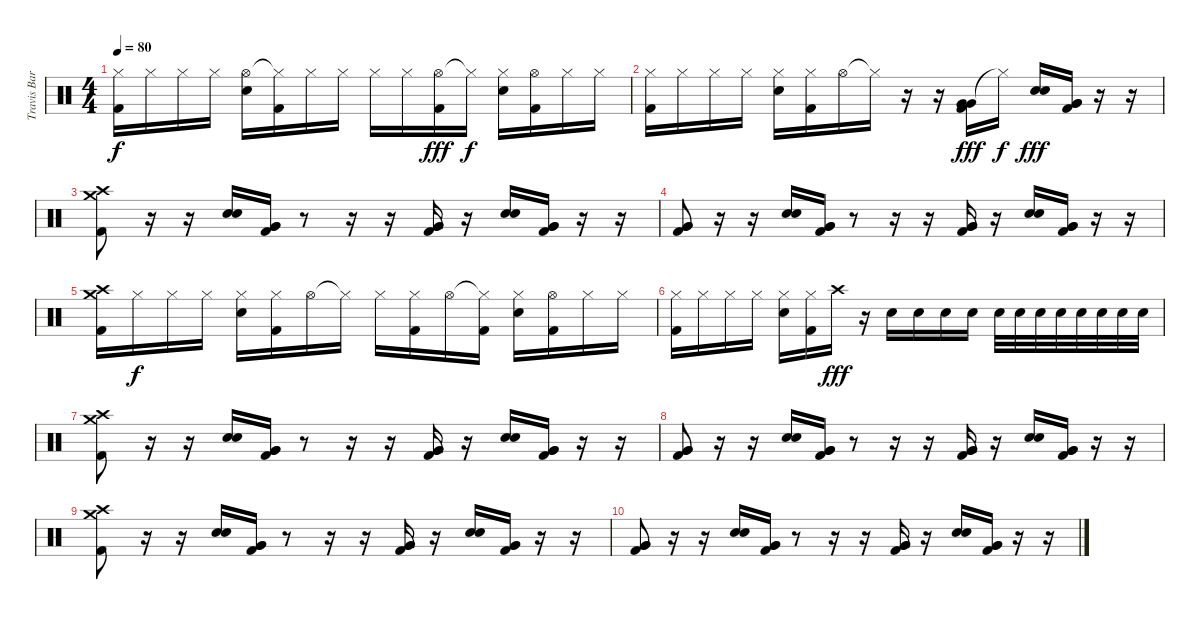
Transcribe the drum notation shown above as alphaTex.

\track ("Travis Barker" "Travis Bar") {instrument percussion}
\staff {score}
\articulation defaults
\ts (4 4)
\tempo 80
\clef neutral
\ks c
("Hi-Hat (closed)" "Kick (hit) 2").16{dy f} "Hi-Hat (closed)".16 "Hi-Hat (closed)".16 "Hi-Hat (closed)".16 ("Hi-Hat (open)" "Electric Snare (hit)").16 ("Hi-Hat (closed)"{t} "Kick (hit) 2").16 "Hi-Hat (closed)".16 "Hi-Hat (closed)".16 "Hi-Hat (closed)".16 "Hi-Hat (closed)".16 ("Hi-Hat (open)" "Kick (hit) 2").16{dy fff} "Hi-Hat (closed)"{t}.16{dy f} ("Hi-Hat (closed)" "Electric Snare (hit)").16 ("Hi-Hat (open)" "Kick (hit) 2").16 "Hi-Hat (closed)".16 "Hi-Hat (closed)".16 |
("Hi-Hat (closed)" "Kick (hit) 2").16 "Hi-Hat (closed)".16 "Hi-Hat (closed)".16 "Hi-Hat (closed)".16 ("Hi-Hat (closed)" "Electric Snare (hit)").16 ("Hi-Hat (closed)" "Kick (hit) 2").16 "Hi-Hat (open)".16 "Hi-Hat (closed)"{t}.16 r.16 r.16 ("Very Low Tom (hit)" "Very Low Tom (hit)" "Kick (hit) 2").16{dy fff} "Hi-Hat (closed)"{t}.16{dy f} ("Electric Snare (hit)" "Electric Snare (hit)").16{dy fff} ("Very Low Tom (hit)" "Very Low Tom (hit)" "Kick (hit) 2").16 r.16 r.16 |
("Crash high (hit)" "Crash medium (hit)" "Kick (hit) 2").8 r.16 r.16 ("Electric Snare (hit)" "Electric Snare (hit)").16 ("Very Low Tom (hit)" "Very Low Tom (hit)" "Kick (hit) 2").16 r.8 r.16 r.16 ("Very Low Tom (hit)" "Very Low Tom (hit)" "Kick (hit) 2").16 r.16 ("Electric Snare (hit)" "Electric Snare (hit)").16 ("Very Low Tom (hit)" "Very Low Tom (hit)" "Kick (hit) 2").16 r.16 r.16 |
("Very Low Tom (hit)" "Very Low Tom (hit)" "Kick (hit) 2").8 r.16 r.16 ("Electric Snare (hit)" "Electric Snare (hit)").16 ("Very Low Tom (hit)" "Very Low Tom (hit)" "Kick (hit) 2").16 r.8 r.16 r.16 ("Very Low Tom (hit)" "Very Low Tom (hit)" "Kick (hit) 2").16 r.16 ("Electric Snare (hit)" "Electric Snare (hit)").16 ("Very Low Tom (hit)" "Very Low Tom (hit)" "Kick (hit) 2").16 r.16 r.16 |
("Crash high (hit)" "Crash medium (hit)" "Kick (hit) 2").16 "Hi-Hat (closed)".16{dy f} "Hi-Hat (closed)".16 "Hi-Hat (closed)".16 ("Hi-Hat (closed)" "Electric Snare (hit)").16 ("Hi-Hat (closed)" "Kick (hit) 2").16 "Hi-Hat (open)".16 "Hi-Hat (closed)"{t}.16 "Hi-Hat (closed)".16 ("Hi-Hat (closed)" "Kick (hit) 2").16 "Hi-Hat (open)".16 ("Hi-Hat (closed)"{t} "Kick (hit) 2").16 ("Hi-Hat (closed)" "Electric Snare (hit)").16 ("Hi-Hat (open)" "Kick (hit) 2").16 "Hi-Hat (closed)".16 "Hi-Hat (closed)".16 |
("Hi-Hat (closed)" "Kick (hit) 2").16 "Hi-Hat (closed)".16 "Hi-Hat (closed)".16 "Hi-Hat (closed)".16 ("Hi-Hat (closed)" "Electric Snare (hit)").16 ("Hi-Hat (closed)" "Kick (hit) 2").16 "Crash high (hit)".16{dy fff} r.16 "Electric Snare (hit)".16 "Electric Snare (hit)".16 "Electric Snare (hit)".16 "Electric Snare (hit)".16 "Electric Snare (hit)".32 "Electric Snare (hit)".32 "Electric Snare (hit)".32 "Electric Snare (hit)".32 "Electric Snare (hit)".32 "Electric Snare (hit)".32 "Electric Snare (hit)".32 "Electric Snare (hit)".32 |
("Crash high (hit)" "Crash medium (hit)" "Kick (hit) 2").8{volume 0} r.16 r.16 ("Electric Snare (hit)" "Electric Snare (hit)").16 ("Very Low Tom (hit)" "Very Low Tom (hit)" "Kick (hit) 2").16 r.8 r.16 r.16 ("Very Low Tom (hit)" "Very Low Tom (hit)" "Kick (hit) 2").16 r.16 ("Electric Snare (hit)" "Electric Snare (hit)").16 ("Very Low Tom (hit)" "Very Low Tom (hit)" "Kick (hit) 2").16 r.16 r.16 |
("Very Low Tom (hit)" "Very Low Tom (hit)" "Kick (hit) 2").8 r.16 r.16 ("Electric Snare (hit)" "Electric Snare (hit)").16 ("Very Low Tom (hit)" "Very Low Tom (hit)" "Kick (hit) 2").16 r.8 r.16 r.16 ("Very Low Tom (hit)" "Very Low Tom (hit)" "Kick (hit) 2").16 r.16 ("Electric Snare (hit)" "Electric Snare (hit)").16 ("Very Low Tom (hit)" "Very Low Tom (hit)" "Kick (hit) 2").16 r.16 r.16 |
("Crash high (hit)" "Crash medium (hit)" "Kick (hit) 2").8 r.16 r.16 ("Electric Snare (hit)" "Electric Snare (hit)").16 ("Very Low Tom (hit)" "Very Low Tom (hit)" "Kick (hit) 2").16 r.8 r.16 r.16 ("Very Low Tom (hit)" "Very Low Tom (hit)" "Kick (hit) 2").16 r.16 ("Electric Snare (hit)" "Electric Snare (hit)").16 ("Very Low Tom (hit)" "Very Low Tom (hit)" "Kick (hit) 2").16 r.16 r.16 |
("Very Low Tom (hit)" "Very Low Tom (hit)" "Kick (hit) 2").8 r.16 r.16 ("Electric Snare (hit)" "Electric Snare (hit)").16 ("Very Low Tom (hit)" "Very Low Tom (hit)" "Kick (hit) 2").16 r.8 r.16 r.16 ("Very Low Tom (hit)" "Very Low Tom (hit)" "Kick (hit) 2").16 r.16 ("Electric Snare (hit)" "Electric Snare (hit)").16 ("Very Low Tom (hit)" "Very Low Tom (hit)" "Kick (hit) 2").16 r.16 r.16
